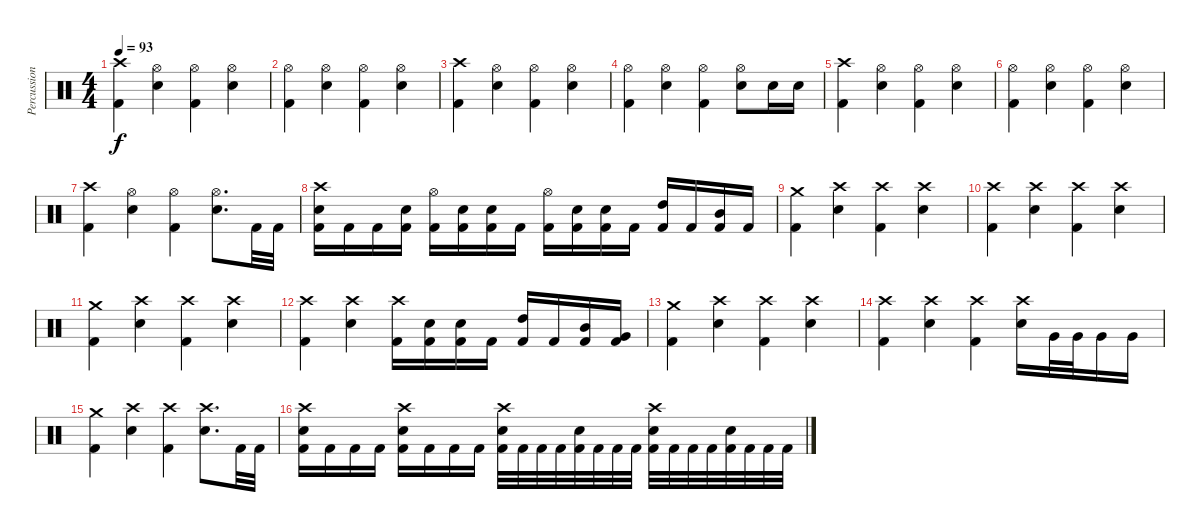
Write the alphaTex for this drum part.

\track ("Percussions" "Percussion") {instrument percussion}
\staff {score}
\articulation defaults
\ts (4 4)
\tempo 93
\clef neutral
\ks c
("Crash high (hit)" "Kick (hit) 2").4{dy f} ("Hi-Hat (open)" "Electric Snare (hit)").4 ("Hi-Hat (open)" "Kick (hit) 2").4 ("Hi-Hat (open)" "Electric Snare (hit)").4 |
("Hi-Hat (open)" "Kick (hit) 2").4 ("Hi-Hat (open)" "Electric Snare (hit)").4 ("Hi-Hat (open)" "Kick (hit) 2").4 ("Hi-Hat (open)" "Electric Snare (hit)").4 |
("Crash high (hit)" "Kick (hit) 2").4 ("Hi-Hat (open)" "Electric Snare (hit)").4 ("Hi-Hat (open)" "Kick (hit) 2").4 ("Hi-Hat (open)" "Electric Snare (hit)").4 |
("Hi-Hat (open)" "Kick (hit) 2").4 ("Hi-Hat (open)" "Electric Snare (hit)").4 ("Hi-Hat (open)" "Kick (hit) 2").4 ("Hi-Hat (open)" "Electric Snare (hit)").8 "Electric Snare (hit)".16 "Electric Snare (hit)".16 |
("Crash high (hit)" "Kick (hit) 2").4 ("Hi-Hat (open)" "Electric Snare (hit)").4 ("Hi-Hat (open)" "Kick (hit) 2").4 ("Hi-Hat (open)" "Electric Snare (hit)").4 |
("Hi-Hat (open)" "Kick (hit) 2").4 ("Hi-Hat (open)" "Electric Snare (hit)").4 ("Hi-Hat (open)" "Kick (hit) 2").4 ("Hi-Hat (open)" "Electric Snare (hit)").4 |
("Crash high (hit)" "Kick (hit) 2").4 ("Hi-Hat (open)" "Electric Snare (hit)").4 ("Hi-Hat (open)" "Kick (hit) 2").4 ("Hi-Hat (open)" "Electric Snare (hit)").8{d} "Kick (hit) 2".32 "Kick (hit) 2".32 |
("Crash high (hit)" "Electric Snare (hit)" "Kick (hit) 2").16 "Kick (hit) 2".16 "Kick (hit) 2".16 ("Electric Snare (hit)" "Kick (hit) 2").16 ("Hi-Hat (open)" "Kick (hit) 2").16 ("Electric Snare (hit)" "Kick (hit) 2").16 ("Electric Snare (hit)" "Kick (hit) 2").16 "Kick (hit) 2".16 ("Hi-Hat (open)" "Kick (hit) 2").16 ("Electric Snare (hit)" "Kick (hit) 2").16 ("Electric Snare (hit)" "Kick (hit) 2").16 "Kick (hit) 2".16 ("High Tom (hit)" "Kick (hit) 2").16 "Kick (hit) 2".16 ("Mid Tom (hit)" "Kick (hit) 2").16 "Kick (hit) 2".16 |
("Crash medium (hit)" "Kick (hit) 2").4 ("Crash high (hit)" "Electric Snare (hit)").4 ("Crash high (hit)" "Kick (hit) 2").4 ("Crash high (hit)" "Electric Snare (hit)").4 |
("Crash high (hit)" "Kick (hit) 2").4 ("Crash high (hit)" "Electric Snare (hit)").4 ("Crash high (hit)" "Kick (hit) 2").4 ("Crash high (hit)" "Electric Snare (hit)").4 |
("Crash medium (hit)" "Kick (hit) 2").4 ("Crash high (hit)" "Electric Snare (hit)").4 ("Crash high (hit)" "Kick (hit) 2").4 ("Crash high (hit)" "Electric Snare (hit)").4 |
("Crash high (hit)" "Kick (hit) 2").4 ("Crash high (hit)" "Electric Snare (hit)").4 ("Crash high (hit)" "Kick (hit) 2").16 ("Electric Snare (hit)" "Kick (hit) 2").16 ("Electric Snare (hit)" "Kick (hit) 2").16 "Kick (hit) 2".16 ("High Tom (hit)" "Kick (hit) 2").16 "Kick (hit) 2".16 ("Mid Tom (hit)" "Kick (hit) 2").16 ("Very Low Tom (hit)" "Kick (hit) 2").16 |
("Crash medium (hit)" "Kick (hit) 2").4 ("Crash high (hit)" "Electric Snare (hit)").4 ("Crash high (hit)" "Kick (hit) 2").4 ("Crash high (hit)" "Electric Snare (hit)").4 |
("Crash high (hit)" "Kick (hit) 2").4 ("Crash high (hit)" "Electric Snare (hit)").4 ("Crash high (hit)" "Kick (hit) 2").4 ("Crash high (hit)" "Electric Snare (hit)").16 "Very Low Tom (hit)".32 "Very Low Tom (hit)".32 "Very Low Tom (hit)".16 "Very Low Tom (hit)".16 |
("Crash medium (hit)" "Kick (hit) 2").4 ("Crash high (hit)" "Electric Snare (hit)").4 ("Crash high (hit)" "Kick (hit) 2").4 ("Crash high (hit)" "Electric Snare (hit)").8{d} "Kick (hit) 2".32 "Kick (hit) 2".32 |
("Crash high (hit)" "Electric Snare (hit)" "Kick (hit) 2").16 "Kick (hit) 2".16 "Kick (hit) 2".16 "Kick (hit) 2".16 ("Crash high (hit)" "Electric Snare (hit)" "Kick (hit) 2").16 "Kick (hit) 2".16 "Kick (hit) 2".16 "Kick (hit) 2".16 ("Crash high (hit)" "Electric Snare (hit)" "Kick (hit) 2").32 "Kick (hit) 2".32 "Kick (hit) 2".32 "Kick (hit) 2".32 ("Electric Snare (hit)" "Kick (hit) 2").32 "Kick (hit) 2".32 "Kick (hit) 2".32 "Kick (hit) 2".32 ("Crash high (hit)" "Electric Snare (hit)" "Kick (hit) 2").32 "Kick (hit) 2".32 "Kick (hit) 2".32 "Kick (hit) 2".32 ("Electric Snare (hit)" "Kick (hit) 2").32 "Kick (hit) 2".32 "Kick (hit) 2".32 "Kick (hit) 2".32
